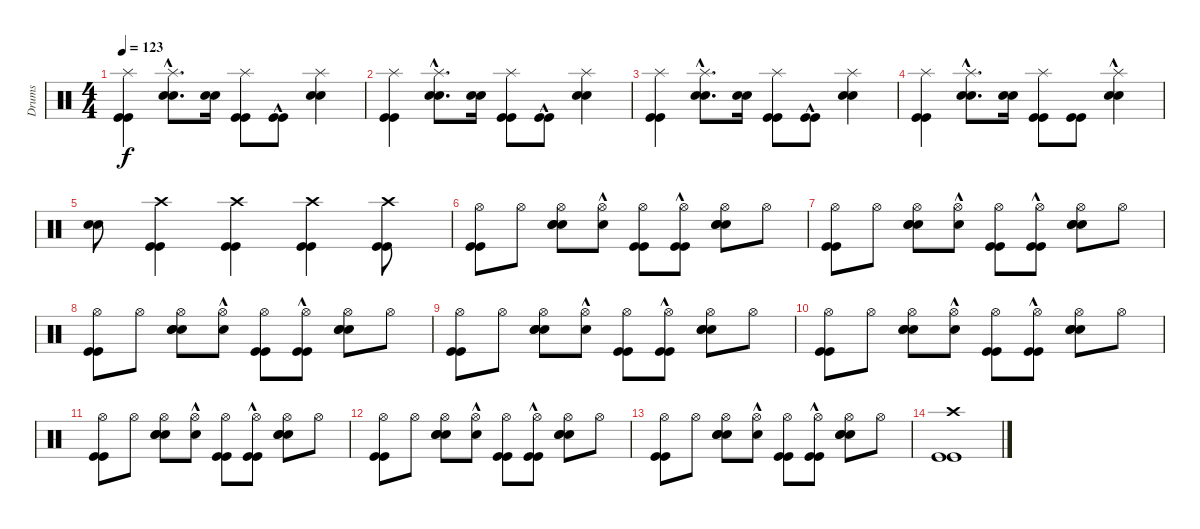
\track ("Drums" "Drums") {instrument percussion}
\staff {score}
\articulation defaults
\ts (4 4)
\tempo 123
\clef neutral
\ks c
("Kick (hit)" "Kick (hit)" "Splash (hit)").4{dy f} ("Snare (hit) 2"{hac} "Snare (hit) 2"{hac} "Splash (hit)").8{d} ("Snare (hit) 2" "Snare (hit) 2").16 ("Kick (hit)" "Kick (hit)" "Splash (hit)").8 ("Kick (hit)"{hac} "Kick (hit)"{hac}).8 ("Snare (hit) 2" "Snare (hit) 2" "Splash (hit)").4 |
("Kick (hit)" "Kick (hit)" "Splash (hit)").4 ("Snare (hit) 2"{hac} "Snare (hit) 2"{hac} "Splash (hit)").8{d} ("Snare (hit) 2" "Snare (hit) 2").16 ("Kick (hit)" "Kick (hit)" "Splash (hit)").8 ("Kick (hit)"{hac} "Kick (hit)"{hac}).8 ("Snare (hit) 2" "Snare (hit) 2" "Splash (hit)").4 |
("Kick (hit)" "Kick (hit)" "Splash (hit)").4 ("Snare (hit) 2"{hac} "Snare (hit) 2"{hac} "Splash (hit)").8{d} ("Snare (hit) 2" "Snare (hit) 2").16 ("Kick (hit)" "Kick (hit)" "Splash (hit)").8 ("Kick (hit)"{hac} "Kick (hit)"{hac}).8 ("Snare (hit) 2" "Snare (hit) 2" "Splash (hit)").4 |
("Kick (hit)" "Kick (hit)" "Splash (hit)").4 ("Snare (hit) 2"{hac} "Snare (hit) 2"{hac} "Splash (hit)").8{d} ("Snare (hit) 2" "Snare (hit) 2").16 ("Kick (hit)" "Kick (hit)" "Splash (hit)").8 ("Kick (hit)" "Kick (hit)").8 ("Snare (hit) 2" "Snare (hit) 2" "Splash (hit)"{hac}).4 |
("Snare (hit) 2" "Snare (hit) 2").8 ("Kick (hit)" "Kick (hit)" "Crash high (hit)").4 ("Kick (hit)" "Kick (hit)" "Crash high (hit)").4 ("Kick (hit)" "Kick (hit)" "Crash high (hit)").4 ("Kick (hit)" "Kick (hit)" "Crash high (hit)").8 |
("Kick (hit)" "Kick (hit)" "Hi-Hat (open)").8 "Hi-Hat (open)".8 ("Snare (hit) 2" "Snare (hit) 2" "Hand Clap (hit)" "Hi-Hat (open)").8 ("Hand Clap (hit)"{hac} "Hi-Hat (open)").8 ("Kick (hit)" "Kick (hit)" "Hi-Hat (open)").8 ("Kick (hit)"{hac} "Kick (hit)"{hac} "Hi-Hat (open)").8 ("Snare (hit) 2" "Snare (hit) 2" "Hand Clap (hit)" "Hi-Hat (open)").8 "Hi-Hat (open)".8 |
("Kick (hit)" "Kick (hit)" "Hi-Hat (open)").8 "Hi-Hat (open)".8 ("Snare (hit) 2" "Snare (hit) 2" "Hand Clap (hit)" "Hi-Hat (open)").8 ("Hand Clap (hit)"{hac} "Hi-Hat (open)").8 ("Kick (hit)" "Kick (hit)" "Hi-Hat (open)").8 ("Kick (hit)"{hac} "Kick (hit)"{hac} "Hi-Hat (open)").8 ("Snare (hit) 2" "Snare (hit) 2" "Hand Clap (hit)" "Hi-Hat (open)").8 "Hi-Hat (open)".8 |
("Kick (hit)" "Kick (hit)" "Hi-Hat (open)").8 "Hi-Hat (open)".8 ("Snare (hit) 2" "Snare (hit) 2" "Hand Clap (hit)" "Hi-Hat (open)").8 ("Hand Clap (hit)"{hac} "Hi-Hat (open)").8 ("Kick (hit)" "Kick (hit)" "Hi-Hat (open)").8 ("Kick (hit)"{hac} "Kick (hit)"{hac} "Hi-Hat (open)").8 ("Snare (hit) 2" "Snare (hit) 2" "Hand Clap (hit)" "Hi-Hat (open)").8 "Hi-Hat (open)".8 |
("Kick (hit)" "Kick (hit)" "Hi-Hat (open)").8 "Hi-Hat (open)".8 ("Snare (hit) 2" "Snare (hit) 2" "Hand Clap (hit)" "Hi-Hat (open)").8 ("Hand Clap (hit)"{hac} "Hi-Hat (open)").8 ("Kick (hit)" "Kick (hit)" "Hi-Hat (open)").8 ("Kick (hit)"{hac} "Kick (hit)"{hac} "Hi-Hat (open)").8 ("Snare (hit) 2" "Snare (hit) 2" "Hand Clap (hit)" "Hi-Hat (open)").8 "Hi-Hat (open)".8 |
("Kick (hit)" "Kick (hit)" "Hi-Hat (open)").8 "Hi-Hat (open)".8 ("Snare (hit) 2" "Snare (hit) 2" "Hand Clap (hit)" "Hi-Hat (open)").8 ("Hand Clap (hit)"{hac} "Hi-Hat (open)").8 ("Kick (hit)" "Kick (hit)" "Hi-Hat (open)").8 ("Kick (hit)"{hac} "Kick (hit)"{hac} "Hi-Hat (open)").8 ("Snare (hit) 2" "Snare (hit) 2" "Hand Clap (hit)" "Hi-Hat (open)").8 "Hi-Hat (open)".8 |
("Kick (hit)" "Kick (hit)" "Hi-Hat (open)").8 "Hi-Hat (open)".8 ("Snare (hit) 2" "Snare (hit) 2" "Hand Clap (hit)" "Hi-Hat (open)").8 ("Hand Clap (hit)"{hac} "Hi-Hat (open)").8 ("Kick (hit)" "Kick (hit)" "Hi-Hat (open)").8 ("Kick (hit)"{hac} "Kick (hit)"{hac} "Hi-Hat (open)").8 ("Snare (hit) 2" "Snare (hit) 2" "Hand Clap (hit)" "Hi-Hat (open)").8 "Hi-Hat (open)".8 |
("Kick (hit)" "Kick (hit)" "Hi-Hat (open)").8 "Hi-Hat (open)".8 ("Snare (hit) 2" "Snare (hit) 2" "Hand Clap (hit)" "Hi-Hat (open)").8 ("Hand Clap (hit)"{hac} "Hi-Hat (open)").8 ("Kick (hit)" "Kick (hit)" "Hi-Hat (open)").8 ("Kick (hit)"{hac} "Kick (hit)"{hac} "Hi-Hat (open)").8 ("Snare (hit) 2" "Snare (hit) 2" "Hand Clap (hit)" "Hi-Hat (open)").8 "Hi-Hat (open)".8 |
("Kick (hit)" "Kick (hit)" "Hi-Hat (open)").8 "Hi-Hat (open)".8 ("Snare (hit) 2" "Snare (hit) 2" "Hand Clap (hit)" "Hi-Hat (open)").8 ("Hand Clap (hit)"{hac} "Hi-Hat (open)").8 ("Kick (hit)" "Kick (hit)" "Hi-Hat (open)").8 ("Kick (hit)"{hac} "Kick (hit)"{hac} "Hi-Hat (open)").8 ("Snare (hit) 2" "Snare (hit) 2" "Hand Clap (hit)" "Hi-Hat (open)").8 "Hi-Hat (open)".8 |
("Kick (hit)" "Kick (hit)" "Crash high (hit)").1
